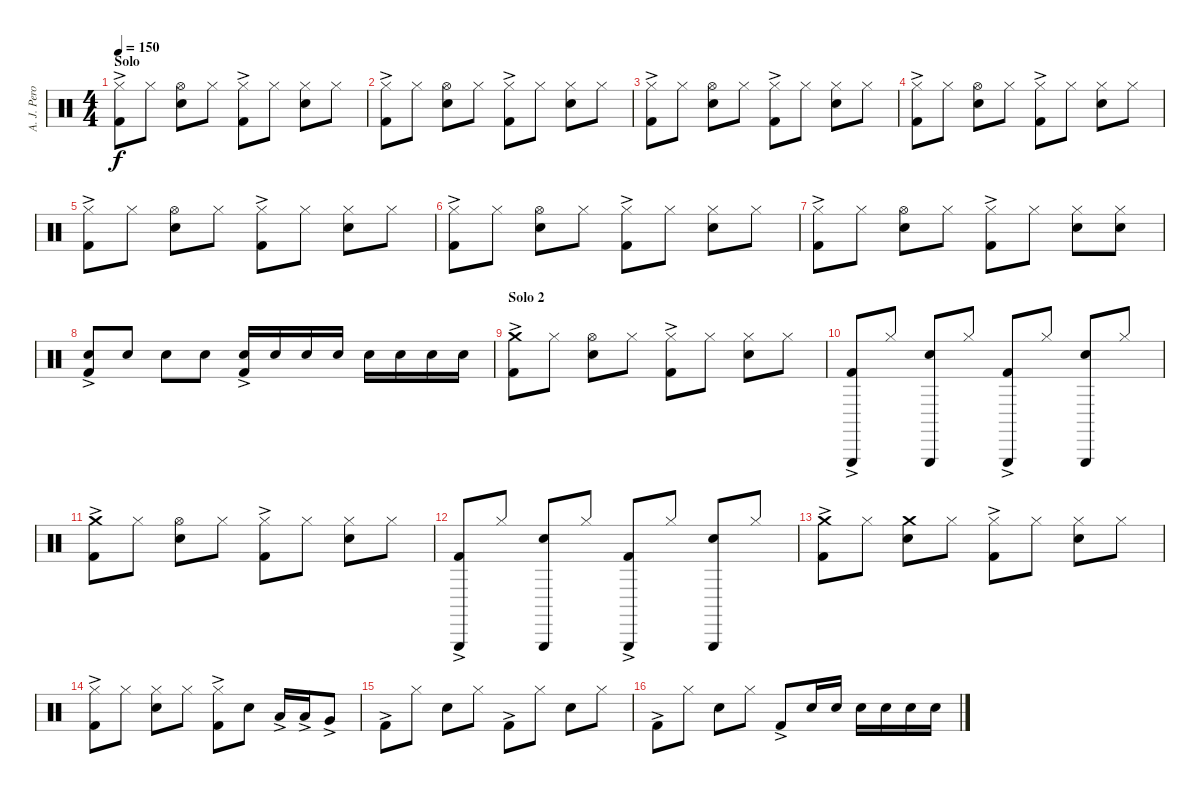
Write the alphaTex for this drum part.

\track ("A. J. Pero - Drums" "A. J. Pero") {instrument percussion}
\staff {score}
\articulation defaults
\ts (4 4)
\section ("" "Solo")
\tempo 150
\clef neutral
\ks c
("Hi-Hat (closed)" "Kick (hit) 2"{ac}).8{dy f} "Hi-Hat (closed)".8 ("Hi-Hat (open)" "Electric Snare (hit)").8 "Hi-Hat (closed)".8 ("Hi-Hat (closed)" "Kick (hit) 2"{ac}).8 "Hi-Hat (closed)".8 ("Hi-Hat (closed)" "Electric Snare (hit)").8 "Hi-Hat (closed)".8 |
("Hi-Hat (closed)" "Kick (hit) 2"{ac}).8 "Hi-Hat (closed)".8 ("Hi-Hat (open)" "Electric Snare (hit)").8 "Hi-Hat (closed)".8 ("Hi-Hat (closed)" "Kick (hit) 2"{ac}).8 "Hi-Hat (closed)".8 ("Hi-Hat (closed)" "Electric Snare (hit)").8 "Hi-Hat (closed)".8 |
("Hi-Hat (closed)" "Kick (hit) 2"{ac}).8 "Hi-Hat (closed)".8 ("Hi-Hat (open)" "Electric Snare (hit)").8 "Hi-Hat (closed)".8 ("Hi-Hat (closed)" "Kick (hit) 2"{ac}).8 "Hi-Hat (closed)".8 ("Hi-Hat (closed)" "Electric Snare (hit)").8 "Hi-Hat (closed)".8 |
("Hi-Hat (closed)" "Kick (hit) 2"{ac}).8 "Hi-Hat (closed)".8 ("Hi-Hat (open)" "Electric Snare (hit)").8 "Hi-Hat (closed)".8 ("Hi-Hat (closed)" "Kick (hit) 2"{ac}).8 "Hi-Hat (closed)".8 ("Hi-Hat (closed)" "Electric Snare (hit)").8 "Hi-Hat (closed)".8 |
("Hi-Hat (closed)" "Kick (hit) 2"{ac}).8 "Hi-Hat (closed)".8 ("Hi-Hat (open)" "Electric Snare (hit)").8 "Hi-Hat (closed)".8 ("Hi-Hat (closed)" "Kick (hit) 2"{ac}).8 "Hi-Hat (closed)".8 ("Hi-Hat (closed)" "Electric Snare (hit)").8 "Hi-Hat (closed)".8 |
("Hi-Hat (closed)" "Kick (hit) 2"{ac}).8 "Hi-Hat (closed)".8 ("Hi-Hat (open)" "Electric Snare (hit)").8 "Hi-Hat (closed)".8 ("Hi-Hat (closed)" "Kick (hit) 2"{ac}).8 "Hi-Hat (closed)".8 ("Hi-Hat (closed)" "Electric Snare (hit)").8 "Hi-Hat (closed)".8 |
("Hi-Hat (closed)" "Kick (hit) 2"{ac}).8 "Hi-Hat (closed)".8 ("Hi-Hat (open)" "Electric Snare (hit)").8 "Hi-Hat (closed)".8 ("Hi-Hat (closed)" "Kick (hit) 2"{ac}).8 "Hi-Hat (closed)".8 ("Hi-Hat (closed)" "Electric Snare (hit)").8 ("Hi-Hat (closed)" "Electric Snare (hit)").8 |
("Electric Snare (hit)" "Kick (hit) 2"{ac}).8 "Electric Snare (hit)".8 "Electric Snare (hit)".8 "Electric Snare (hit)".8 ("Electric Snare (hit)" "Kick (hit) 2"{ac}).16 "Electric Snare (hit)".16 "Electric Snare (hit)".16 "Electric Snare (hit)".16 "Electric Snare (hit)".16 "Electric Snare (hit)".16 "Electric Snare (hit)".16 "Electric Snare (hit)".16 |
\section ("" "Solo 2")
("Crash medium (hit)" "Kick (hit) 2"{ac}).8 "Hi-Hat (closed)".8 ("Hi-Hat (open)" "Electric Snare (hit)").8 "Hi-Hat (closed)".8 ("Hi-Hat (closed)" "Kick (hit) 2"{ac}).8 "Hi-Hat (closed)".8 ("Hi-Hat (closed)" "Electric Snare (hit)").8 "Hi-Hat (closed)".8 |
("Triangle (hit)" "Kick (hit) 2"{ac}).8 "Hi-Hat (closed)".8 ("Triangle (hit)" "Electric Snare (hit)").8 "Hi-Hat (closed)".8 ("Triangle (hit)" "Kick (hit) 2"{ac}).8 "Hi-Hat (closed)".8 ("Triangle (hit)" "Electric Snare (hit)").8 "Hi-Hat (closed)".8 |
("Crash medium (hit)" "Kick (hit) 2"{ac}).8 "Hi-Hat (closed)".8 ("Hi-Hat (open)" "Electric Snare (hit)").8 "Hi-Hat (closed)".8 ("Hi-Hat (closed)" "Kick (hit) 2"{ac}).8 "Hi-Hat (closed)".8 ("Hi-Hat (closed)" "Electric Snare (hit)").8 "Hi-Hat (closed)".8 |
("Triangle (hit)" "Kick (hit) 2"{ac}).8 "Hi-Hat (closed)".8 ("Triangle (hit)" "Electric Snare (hit)").8 "Hi-Hat (closed)".8 ("Triangle (hit)" "Kick (hit) 2"{ac}).8 "Hi-Hat (closed)".8 ("Triangle (hit)" "Electric Snare (hit)").8 "Hi-Hat (closed)".8 |
("Crash medium (hit)" "Kick (hit) 2"{ac}).8 "Hi-Hat (closed)".8 ("Crash medium (hit)" "Electric Snare (hit)").8 "Hi-Hat (closed)".8 ("Hi-Hat (closed)" "Kick (hit) 2"{ac}).8 "Hi-Hat (closed)".8 ("Hi-Hat (closed)" "Electric Snare (hit)").8 "Hi-Hat (closed)".8 |
("Hi-Hat (closed)" "Kick (hit) 2"{ac}).8 "Hi-Hat (closed)".8 ("Hi-Hat (closed)" "Electric Snare (hit)").8 "Hi-Hat (closed)".8 ("Hi-Hat (closed)" "Kick (hit) 2"{ac}).8 "Electric Snare (hit)".8 "Low Floor Tom (hit)"{ac}.16 "Low Floor Tom (hit)"{ac}.16 "Very Low Tom (hit)"{ac}.8 |
"Kick (hit) 2"{ac}.8 "Hi-Hat (closed)".8 "Electric Snare (hit)".8 "Hi-Hat (closed)".8 "Kick (hit) 2"{ac}.8 "Hi-Hat (closed)".8 "Electric Snare (hit)".8 "Hi-Hat (closed)".8 |
"Kick (hit) 2"{ac}.8 "Hi-Hat (closed)".8 "Electric Snare (hit)".8 "Hi-Hat (closed)".8 "Kick (hit) 2"{ac}.8 "Electric Snare (hit)".16 "Electric Snare (hit)".16 "Electric Snare (hit)".16 "Electric Snare (hit)".16 "Electric Snare (hit)".16 "Electric Snare (hit)".16
